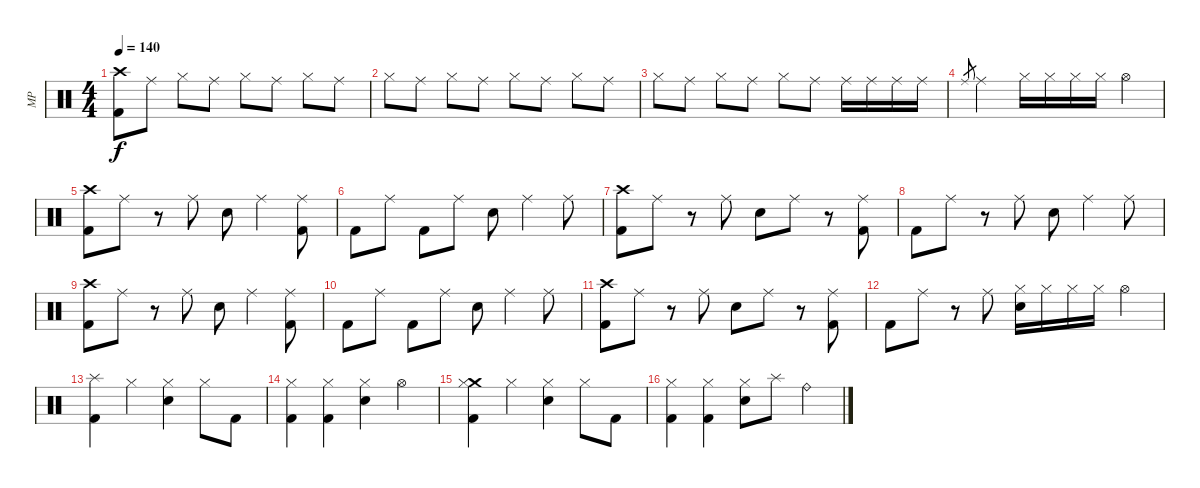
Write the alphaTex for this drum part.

\track ("MP" "MP") {instrument percussion}
\staff {score}
\articulation defaults
\ts (4 4)
\tempo 140
\clef neutral
\ks c
("Kick (hit) 2" "Crash high (hit)").8{dy f} "Ride (middle)".8 "Hi-Hat (closed)".8 "Ride (middle)".8 "Hi-Hat (closed)".8 "Ride (middle)".8 "Hi-Hat (closed)".8 "Ride (middle)".8 |
"Hi-Hat (closed)".8 "Ride (middle)".8 "Hi-Hat (closed)".8 "Ride (middle)".8 "Hi-Hat (closed)".8 "Ride (middle)".8 "Hi-Hat (closed)".8 "Ride (middle)".8 |
"Hi-Hat (closed)".8 "Ride (middle)".8 "Hi-Hat (closed)".8 "Ride (middle)".8 "Hi-Hat (closed)".8 "Ride (middle)".8 "Ride (middle)".16 "Ride (middle)".16 "Ride (middle)".16 "Ride (middle)".16 |
"Ride (middle)".8{gr} "Ride (middle)".2 "Hi-Hat (closed)".16 "Hi-Hat (closed)".16 "Hi-Hat (closed)".16 "Hi-Hat (closed)".16 "Hi-Hat (open)".4 |
("Kick (hit) 2" "Crash high (hit)").8 "Ride (middle)".8 r.8 "Ride (middle)".8 "Electric Snare (hit)".8 "Ride (middle)".4 ("Kick (hit) 2" "Ride (middle)").8 |
"Kick (hit) 2".8 "Ride (middle)".8 "Kick (hit) 2".8 "Ride (middle)".8 "Electric Snare (hit)".8 "Ride (middle)".4 "Ride (middle)".8 |
("Kick (hit) 2" "Crash high (hit)").8 "Ride (middle)".8 r.8 "Ride (middle)".8 "Electric Snare (hit)".8 "Ride (middle)".8 r.8 ("Kick (hit) 2" "Ride (middle)").8 |
"Kick (hit) 2".8 "Ride (middle)".8 r.8 "Ride (middle)".8 "Electric Snare (hit)".8 "Ride (middle)".4 "Ride (middle)".8 |
("Kick (hit) 2" "Crash high (hit)").8 "Ride (middle)".8 r.8 "Ride (middle)".8 "Electric Snare (hit)".8 "Ride (middle)".4 ("Kick (hit) 2" "Ride (middle)").8 |
"Kick (hit) 2".8 "Ride (middle)".8 "Kick (hit) 2".8 "Ride (middle)".8 "Electric Snare (hit)".8 "Ride (middle)".4 "Ride (middle)".8 |
("Kick (hit) 2" "Crash high (hit)").8 "Ride (middle)".8 r.8 "Ride (middle)".8 "Electric Snare (hit)".8 "Ride (middle)".8 r.8 ("Kick (hit) 2" "Ride (middle)").8 |
"Kick (hit) 2".8 "Ride (middle)".8 r.8 "Ride (middle)".8 ("Electric Snare (hit)" "Hi-Hat (closed)").16 "Hi-Hat (closed)".16 "Hi-Hat (closed)".16 "Hi-Hat (closed)".16 "Hi-Hat (open)".4 |
("Kick (hit) 2" "Splash (hit)").4 "Hi-Hat (closed)".4 ("Electric Snare (hit)" "Hi-Hat (closed)").4 "Hi-Hat (closed)".8 "Kick (hit) 2".8 |
("Kick (hit) 2" "Hi-Hat (closed)").4 ("Kick (hit) 2" "Hi-Hat (closed)").4 ("Electric Snare (hit)" "Hi-Hat (closed)").4 "Hi-Hat (open)".4 |
("Kick (hit) 2" "Crash medium (hit)" "Hi-Hat (closed)").4 "Hi-Hat (closed)".4 ("Electric Snare (hit)" "Hi-Hat (closed)").4 "Hi-Hat (closed)".8 "Kick (hit) 2".8 |
("Kick (hit) 2" "Hi-Hat (closed)").4 ("Kick (hit) 2" "Hi-Hat (closed)").4 ("Electric Snare (hit)" "Hi-Hat (closed)").8 "Splash (hit)".8 "Ride (bell)".4
